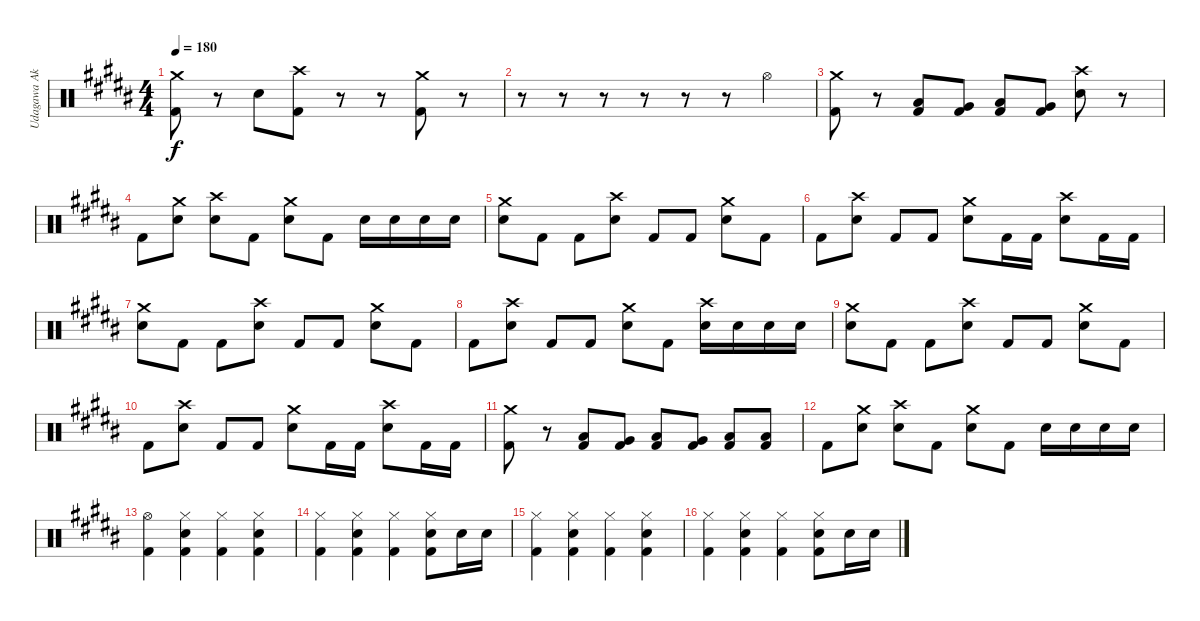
\track ("Udagawa Ako" "Udagawa Ak") {instrument percussion}
\staff {score}
\articulation defaults
\ts (4 4)
\tempo 180
\clef neutral
\ks b
("Crash medium (hit)" "Kick (hit) 2").8{dy f} r.8 "Electric Snare (hit)".8 ("Crash high (hit)" "Kick (hit) 2").8 r.8 r.8 ("Crash medium (hit)" "Kick (hit) 2").8 r.8 |
r.8 r.8 r.8 r.8 r.8 r.8 "Hi-Hat (open)".4 |
("Crash medium (hit)" "Kick (hit) 2").8 r.8 ("Low Floor Tom (hit)" "Kick (hit) 2").8 ("Very Low Tom (hit)" "Kick (hit) 2").8 ("Low Floor Tom (hit)" "Kick (hit) 2").8 ("Very Low Tom (hit)" "Kick (hit) 2").8 ("Crash high (hit)" "Electric Snare (hit)").8 r.8 |
"Kick (hit) 2".8 ("Crash medium (hit)" "Electric Snare (hit)").8 ("Crash high (hit)" "Electric Snare (hit)").8 "Kick (hit) 2".8 ("Crash medium (hit)" "Electric Snare (hit)").8 "Kick (hit) 2".8 "Electric Snare (hit)".16 "Electric Snare (hit)".16 "Electric Snare (hit)".16 "Electric Snare (hit)".16 |
("Crash medium (hit)" "Electric Snare (hit)").8 "Kick (hit) 2".8 "Kick (hit) 2".8 ("Crash high (hit)" "Electric Snare (hit)").8 "Kick (hit) 2".8 "Kick (hit) 2".8 ("Crash medium (hit)" "Electric Snare (hit)").8 "Kick (hit) 2".8 |
"Kick (hit) 2".8 ("Crash high (hit)" "Electric Snare (hit)").8 "Kick (hit) 2".8 "Kick (hit) 2".8 ("Crash medium (hit)" "Electric Snare (hit)").8 "Kick (hit) 2".16 "Kick (hit) 2".16 ("Crash high (hit)" "Electric Snare (hit)").8 "Kick (hit) 2".16 "Kick (hit) 2".16 |
("Crash medium (hit)" "Electric Snare (hit)").8 "Kick (hit) 2".8 "Kick (hit) 2".8 ("Crash high (hit)" "Electric Snare (hit)").8 "Kick (hit) 2".8 "Kick (hit) 2".8 ("Crash medium (hit)" "Electric Snare (hit)").8 "Kick (hit) 2".8 |
"Kick (hit) 2".8 ("Crash high (hit)" "Electric Snare (hit)").8 "Kick (hit) 2".8 "Kick (hit) 2".8 ("Crash medium (hit)" "Electric Snare (hit)").8 "Kick (hit) 2".8 ("Crash high (hit)" "Electric Snare (hit)").16 "Electric Snare (hit)".16 "Electric Snare (hit)".16 "Electric Snare (hit)".16 |
("Crash medium (hit)" "Electric Snare (hit)").8 "Kick (hit) 2".8 "Kick (hit) 2".8 ("Crash high (hit)" "Electric Snare (hit)").8 "Kick (hit) 2".8 "Kick (hit) 2".8 ("Crash medium (hit)" "Electric Snare (hit)").8 "Kick (hit) 2".8 |
"Kick (hit) 2".8 ("Crash high (hit)" "Electric Snare (hit)").8 "Kick (hit) 2".8 "Kick (hit) 2".8 ("Crash medium (hit)" "Electric Snare (hit)").8 "Kick (hit) 2".16 "Kick (hit) 2".16 ("Crash high (hit)" "Electric Snare (hit)").8 "Kick (hit) 2".16 "Kick (hit) 2".16 |
("Crash medium (hit)" "Kick (hit) 2").8 r.8 ("Low Floor Tom (hit)" "Kick (hit) 2").8 ("Very Low Tom (hit)" "Kick (hit) 2").8 ("Low Floor Tom (hit)" "Kick (hit) 2").8 ("Very Low Tom (hit)" "Kick (hit) 2").8 ("Low Floor Tom (hit)" "Kick (hit) 2").8 ("Low Floor Tom (hit)" "Kick (hit) 2").8 |
"Kick (hit) 2".8 ("Crash medium (hit)" "Electric Snare (hit)").8 ("Crash high (hit)" "Electric Snare (hit)").8 "Kick (hit) 2".8 ("Crash medium (hit)" "Electric Snare (hit)").8 "Kick (hit) 2".8 "Electric Snare (hit)".16 "Electric Snare (hit)".16 "Electric Snare (hit)".16 "Electric Snare (hit)".16 |
("Hi-Hat (open)" "Kick (hit) 2").4 ("Hi-Hat (closed)" "Electric Snare (hit)" "Kick (hit) 2").4 ("Hi-Hat (closed)" "Kick (hit) 2").4 ("Hi-Hat (closed)" "Electric Snare (hit)" "Kick (hit) 2").4 |
("Hi-Hat (closed)" "Kick (hit) 2").4 ("Hi-Hat (closed)" "Electric Snare (hit)" "Kick (hit) 2").4 ("Hi-Hat (closed)" "Kick (hit) 2").4 ("Hi-Hat (closed)" "Electric Snare (hit)" "Kick (hit) 2").8 "Electric Snare (hit)".16 "Electric Snare (hit)".16 |
("Hi-Hat (closed)" "Kick (hit) 2").4 ("Hi-Hat (closed)" "Electric Snare (hit)" "Kick (hit) 2").4 ("Hi-Hat (closed)" "Kick (hit) 2").4 ("Hi-Hat (closed)" "Electric Snare (hit)" "Kick (hit) 2").4 |
("Hi-Hat (closed)" "Kick (hit) 2").4 ("Hi-Hat (closed)" "Electric Snare (hit)" "Kick (hit) 2").4 ("Hi-Hat (closed)" "Kick (hit) 2").4 ("Hi-Hat (closed)" "Electric Snare (hit)" "Kick (hit) 2").8 "Electric Snare (hit)".16 "Electric Snare (hit)".16
